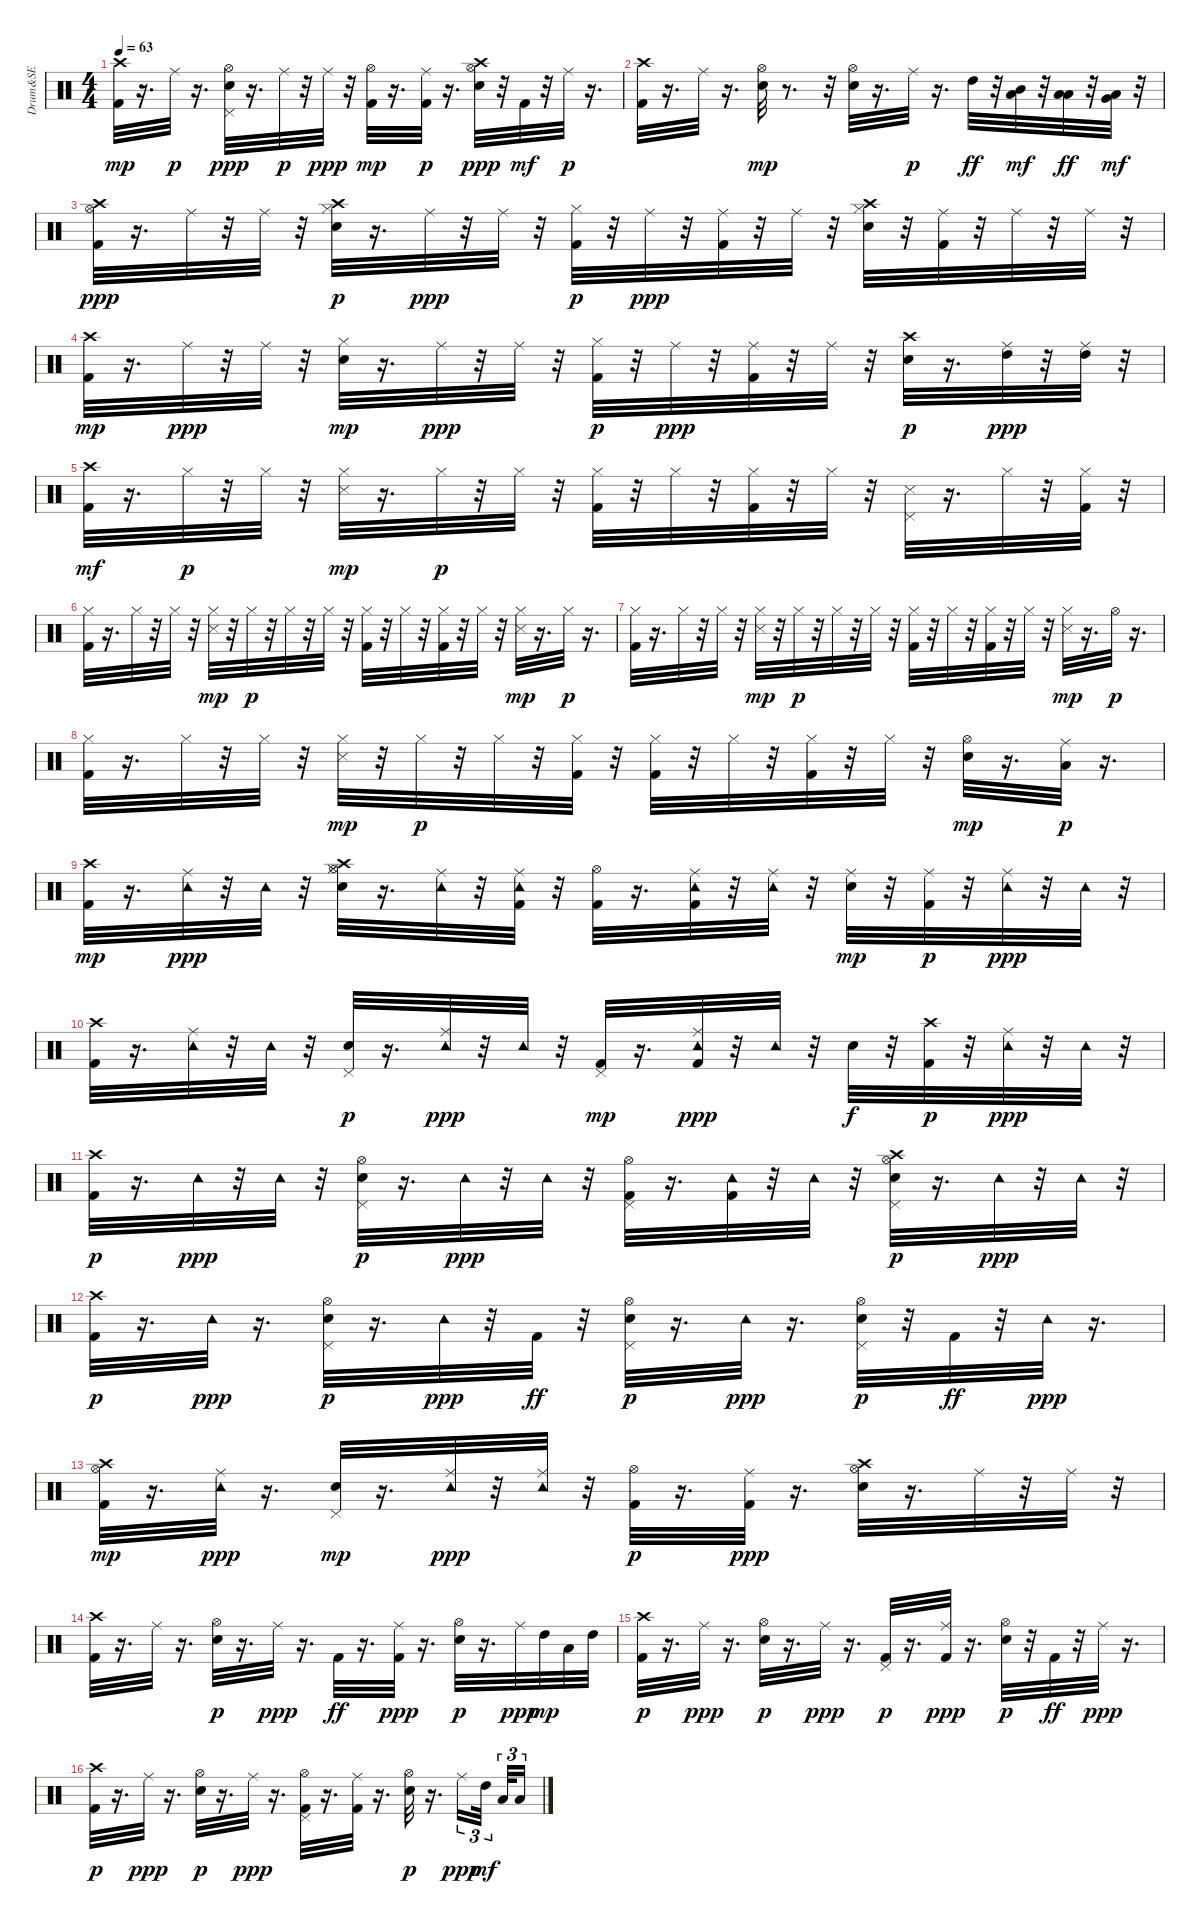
\track ("Drum&SE" "Drum&SE") {instrument percussion}
\staff {score}
\articulation defaults
\ts (4 4)
\tempo 63
\clef neutral
\ks c
("Kick (hit) 2" "Crash high (hit)").32{dy mp} r.16{d} "Ride (middle)".32{dy p} r.16{d} ("Snare (hit) 2" "Pedal Hi-Hat (hit)" "Hi-Hat (open)").32{dy ppp} r.16{d} "Ride (middle)".32{dy p} r.32 "Ride (middle)".32{dy ppp} r.32 ("Kick (hit) 2" "Hi-Hat (open)").32{dy mp} r.16{d} ("Kick (hit) 2" "Ride (middle)").32{dy p} r.16{d} ("Snare (hit) 2" "Hi-Hat (open)" "Crash high (hit)").32{dy ppp} r.32 "Kick (hit) 2".32{dy mf} r.32 "Ride (middle)".32{dy p} r.16{d} |
("Kick (hit) 2" "Crash high (hit)").32 r.16{d} "Ride (middle)".32 r.16{d} ("Snare (hit) 2" "Hi-Hat (open)").32{dy mp} r.8{d} r.32 ("Snare (hit) 2" "Hi-Hat (open)").32 r.16{d} "Ride (middle)".32{dy p} r.16{d} "High Tom (hit)".32{dy ff} r.32 ("Low Tom (hit)" "Mid Tom (hit)").32{dy mf} r.32 ("Low Floor Tom (hit)" "Low Tom (hit)").32{dy ff} r.32 ("Low Floor Tom (hit)" "Very Low Tom (hit)").32{dy mf} r.32 |
("Kick (hit) 2" "Hi-Hat (open)" "Crash high (hit)").32{dy ppp} r.16{d} "Ride (middle)".32 r.32 "Ride (middle)".32 r.32 ("Snare (hit) 2" "Hi-Hat (closed)" "Crash high (hit)").32{dy p} r.16{d} "Ride (middle)".32{dy ppp} r.32 "Ride (middle)".32 r.32 ("Kick (hit) 2" "Hi-Hat (closed)").32{dy p} r.32 "Ride (middle)".32{dy ppp} r.32 ("Kick (hit) 2" "Ride (middle)").32 r.32 "Ride (middle)".32 r.32 ("Snare (hit) 2" "Hi-Hat (closed)" "Crash high (hit)").32 r.32 ("Kick (hit) 2" "Ride (middle)").32 r.32 "Ride (middle)".32 r.32 "Ride (middle)".32 r.32 |
("Kick (hit) 2" "Crash high (hit)").32{dy mp} r.16{d} "Ride (middle)".32{dy ppp} r.32 "Ride (middle)".32 r.32 ("Snare (hit) 2" "Hi-Hat (closed)").32{dy mp} r.16{d} "Ride (middle)".32{dy ppp} r.32 "Ride (middle)".32 r.32 ("Kick (hit) 2" "Hi-Hat (closed)").32{dy p} r.32 "Ride (middle)".32{dy ppp} r.32 ("Kick (hit) 2" "Ride (middle)").32 r.32 "Ride (middle)".32 r.32 ("Snare (hit) 2" "Crash high (hit)").32{dy p} r.16{d} ("High Tom (hit)" "Ride (middle)").32{dy ppp} r.32 ("High Tom (hit)" "Ride (middle)").32 r.32 |
("Kick (hit) 2" "Crash high (hit)").32{dy mf} r.16{d} "Hi-Hat (closed)".32{dy p} r.32 "Hi-Hat (closed)".32 r.32 ("Snare (side stick) 3" "Hi-Hat (closed)").32{dy mp} r.16{d} "Hi-Hat (closed)".32{dy p} r.32 "Hi-Hat (closed)".32 r.32 ("Kick (hit) 2" "Hi-Hat (closed)").32 r.32 "Hi-Hat (closed)".32 r.32 ("Kick (hit) 2" "Hi-Hat (closed)").32 r.32 "Hi-Hat (closed)".32 r.32 ("Snare (side stick) 3" "Pedal Hi-Hat (hit)").32 r.16{d} "Hi-Hat (closed)".32 r.32 ("Kick (hit) 2" "Hi-Hat (closed)").32 r.32 |
("Kick (hit) 2" "Hi-Hat (closed)").32 r.16{d} "Hi-Hat (closed)".32 r.32 "Hi-Hat (closed)".32 r.32 ("Snare (side stick) 3" "Hi-Hat (closed)").32{dy mp} r.32 "Hi-Hat (closed)".32{dy p} r.32 "Hi-Hat (closed)".32 r.32 "Hi-Hat (closed)".32 r.32 ("Kick (hit) 2" "Hi-Hat (closed)").32 r.32 "Hi-Hat (closed)".32 r.32 ("Kick (hit) 2" "Hi-Hat (closed)").32 r.32 "Hi-Hat (closed)".32 r.32 ("Snare (side stick) 3" "Hi-Hat (closed)").32{dy mp} r.16{d} "Hi-Hat (closed)".32{dy p} r.16{d} |
("Kick (hit) 2" "Hi-Hat (closed)").32 r.16{d} "Hi-Hat (closed)".32 r.32 "Hi-Hat (closed)".32 r.32 ("Snare (side stick) 3" "Hi-Hat (closed)").32{dy mp} r.32 "Hi-Hat (closed)".32{dy p} r.32 "Hi-Hat (closed)".32 r.32 "Hi-Hat (closed)".32 r.32 ("Kick (hit) 2" "Hi-Hat (closed)").32 r.32 "Hi-Hat (closed)".32 r.32 ("Kick (hit) 2" "Hi-Hat (closed)").32 r.32 "Hi-Hat (closed)".32 r.32 ("Snare (side stick) 3" "Hi-Hat (closed)").32{dy mp} r.16{d} "Hi-Hat (open)".32{dy p} r.16{d} |
("Kick (hit) 2" "Hi-Hat (closed)").32 r.16{d} "Hi-Hat (closed)".32 r.32 "Hi-Hat (closed)".32 r.32 ("Snare (side stick) 3" "Hi-Hat (closed)").32{dy mp} r.32 "Hi-Hat (closed)".32{dy p} r.32 "Hi-Hat (closed)".32 r.32 ("Kick (hit) 2" "Hi-Hat (closed)").32 r.32 ("Kick (hit) 2" "Hi-Hat (closed)").32 r.32 "Hi-Hat (closed)".32 r.32 ("Kick (hit) 2" "Hi-Hat (closed)").32 r.32 "Hi-Hat (closed)".32 r.32 ("Snare (hit) 2" "Hi-Hat (open)").32{dy mp} r.16{d} ("Low Floor Tom (hit)" "Ride (middle)").32{dy p} r.16{d} |
("Kick (hit) 2" "Crash high (hit)").32{dy mp} r.16{d} ("Ride (middle)" "Tambourine (hit)").32{dy ppp} r.32 "Tambourine (hit)".32 r.32 ("Snare (hit) 2" "Hi-Hat (closed)" "Hi-Hat (open)" "Crash high (hit)").32 r.16{d} ("Ride (middle)" "Tambourine (hit)").32 r.32 ("Kick (hit) 2" "Ride (middle)" "Tambourine (hit)").32 r.32 ("Kick (hit) 2" "Hi-Hat (open)").32 r.16{d} ("Kick (hit) 2" "Ride (middle)" "Tambourine (hit)").32 r.32 ("Ride (middle)" "Tambourine (hit)").32 r.32 ("Snare (hit) 2" "Ride (middle)").32{dy mp} r.32 ("Kick (hit) 2" "Ride (middle)").32{dy p} r.32 ("Ride (middle)" "Tambourine (hit)").32{dy ppp} r.32 "Tambourine (hit)".32 r.32 |
("Kick (hit) 2" "Crash high (hit)").32 r.16{d} ("Ride (middle)" "Tambourine (hit)").32 r.32 "Tambourine (hit)".32 r.32 ("Snare (hit) 2" "Pedal Hi-Hat (hit)").32{dy p} r.16{d} ("Ride (middle)" "Tambourine (hit)").32{dy ppp} r.32 "Tambourine (hit)".32 r.32 ("Kick (hit) 2" "Pedal Hi-Hat (hit)").32{dy mp} r.16{d} ("Kick (hit) 2" "Ride (middle)" "Tambourine (hit)").32{dy ppp} r.32 "Tambourine (hit)".32 r.32 "Snare (hit) 2".32{dy f} r.32 ("Kick (hit) 2" "Crash high (hit)").32{dy p} r.32 ("Ride (middle)" "Tambourine (hit)").32{dy ppp} r.32 "Tambourine (hit)".32 r.32 |
("Kick (hit) 2" "Crash high (hit)").32{dy p} r.16{d} "Tambourine (hit)".32{dy ppp} r.32 "Tambourine (hit)".32 r.32 ("Snare (hit) 2" "Pedal Hi-Hat (hit)" "Hi-Hat (open)").32{dy p} r.16{d} "Tambourine (hit)".32{dy ppp} r.32 "Tambourine (hit)".32 r.32 ("Kick (hit) 2" "Pedal Hi-Hat (hit)" "Hi-Hat (open)").32 r.16{d} ("Kick (hit) 2" "Tambourine (hit)").32 r.32 "Tambourine (hit)".32 r.32 ("Snare (hit) 2" "Pedal Hi-Hat (hit)" "Hi-Hat (open)" "Crash high (hit)").32{dy p} r.16{d} "Tambourine (hit)".32{dy ppp} r.32 "Tambourine (hit)".32 r.32 |
("Kick (hit) 2" "Crash high (hit)").32{dy p} r.16{d} "Tambourine (hit)".32{dy ppp} r.16{d} ("Snare (hit) 2" "Pedal Hi-Hat (hit)" "Hi-Hat (open)").32{dy p} r.16{d} "Tambourine (hit)".32{dy ppp} r.32 "Kick (hit) 2".32{dy ff} r.32 ("Snare (hit) 2" "Pedal Hi-Hat (hit)" "Hi-Hat (open)").32{dy p} r.16{d} "Tambourine (hit)".32{dy ppp} r.16{d} ("Snare (hit) 2" "Pedal Hi-Hat (hit)" "Hi-Hat (open)").32{dy p} r.32 "Kick (hit) 2".32{dy ff} r.32 "Tambourine (hit)".32{dy ppp} r.16{d} |
("Kick (hit) 2" "Hi-Hat (open)" "Crash high (hit)").32{dy mp} r.16{d} ("Ride (middle)" "Tambourine (hit)").32{dy ppp} r.16{d} ("Snare (hit) 2" "Pedal Hi-Hat (hit)").32{dy mp} r.16{d} ("Ride (middle)" "Tambourine (hit)").32{dy ppp} r.32 ("Ride (middle)" "Tambourine (hit)").32 r.32 ("Kick (hit) 2" "Hi-Hat (open)").32{dy p} r.16{d} ("Kick (hit) 2" "Ride (middle)").32{dy ppp} r.16{d} ("Snare (hit) 2" "Hi-Hat (open)" "Crash high (hit)").32 r.16{d} "Ride (middle)".32 r.32 "Ride (middle)".32 r.32 |
("Kick (hit) 2" "Crash high (hit)").32 r.16{d} "Ride (middle)".32 r.16{d} ("Snare (hit) 2" "Hi-Hat (open)").32{dy p} r.16{d} "Ride (middle)".32{dy ppp} r.16{d} "Kick (hit) 2".32{dy ff} r.16{d} ("Kick (hit) 2" "Ride (middle)").32{dy ppp} r.16{d} ("Snare (hit) 2" "Hi-Hat (open)").32{dy p} r.16{d} "Ride (middle)".32{dy ppp} "High Tom (hit)".32{dy mp} "Low Tom (hit)".32 "High Tom (hit)".32 |
("Kick (hit) 2" "Crash high (hit)").32{dy p} r.16{d} "Ride (middle)".32{dy ppp} r.16{d} ("Snare (hit) 2" "Hi-Hat (open)").32{dy p} r.16{d} "Ride (middle)".32{dy ppp} r.16{d} ("Kick (hit) 2" "Pedal Hi-Hat (hit)").32{dy p} r.16{d} ("Kick (hit) 2" "Ride (middle)").32{dy ppp} r.16{d} ("Snare (hit) 2" "Hi-Hat (open)").32{dy p} r.32 "Kick (hit) 2".32{dy ff} r.32 "Ride (middle)".32{dy ppp} r.16{d} |
("Kick (hit) 2" "Crash high (hit)").32{dy p} r.16{d} "Ride (middle)".32{dy ppp} r.16{d} ("Snare (hit) 2" "Hi-Hat (open)").32{dy p} r.16{d} "Ride (middle)".32{dy ppp} r.16{d} ("Kick (hit) 2" "Pedal Hi-Hat (hit)" "Hi-Hat (open)").32 r.16{d} ("Kick (hit) 2" "Ride (middle)").32 r.16{d} ("Snare (hit) 2" "Hi-Hat (open)").32{dy p} r.16{d} "Ride (middle)".16{tu (3 2) dy ppp} "High Tom (hit)".32{tu (3 2) dy mf beam splitsecondary} "Low Tom (hit)".32{tu (3 2)} "Low Floor Tom (hit)".16{tu (3 2)}
